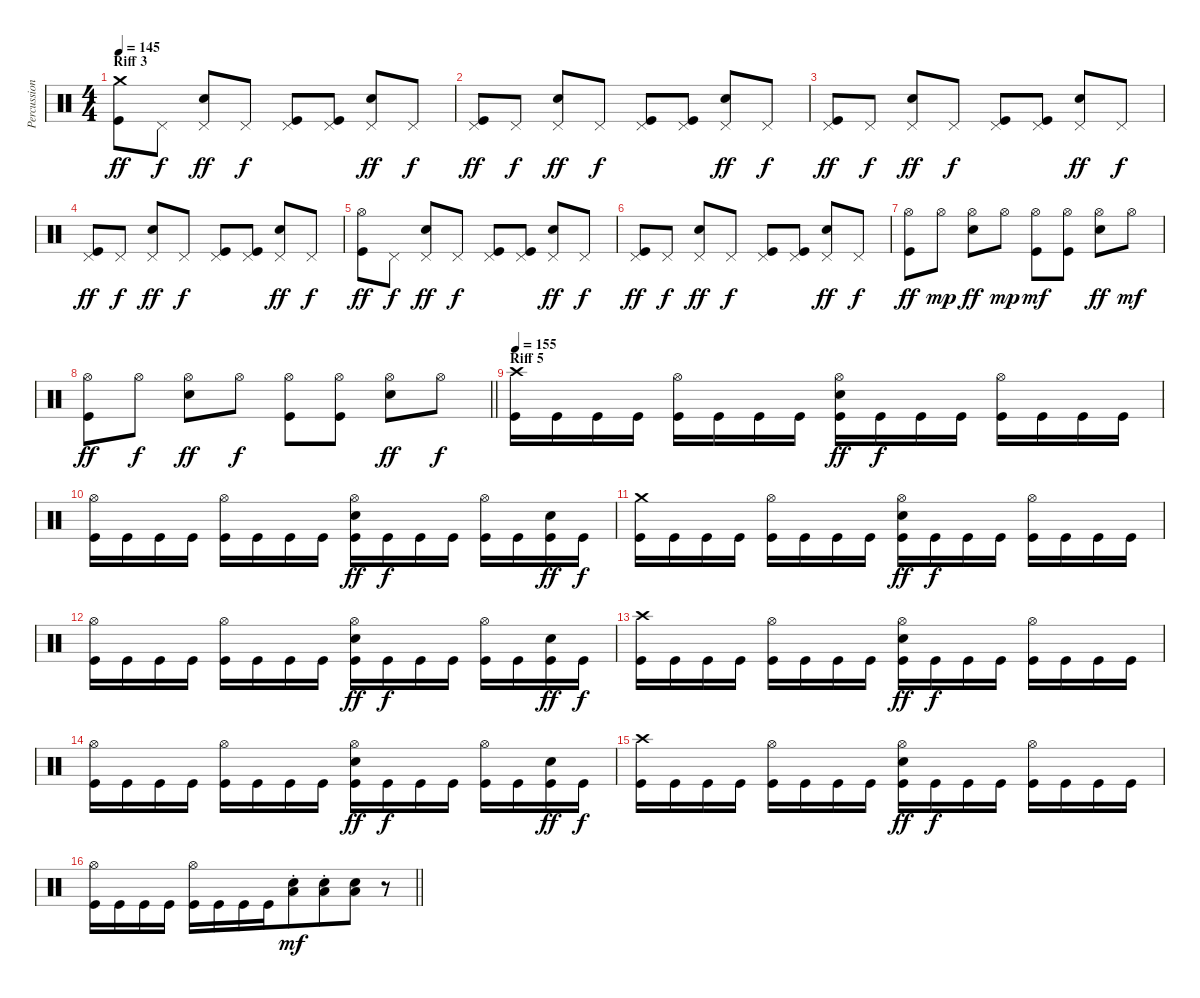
\track ("Percussions" "Percussion") {instrument percussion}
\staff {score}
\articulation defaults
\ts (4 4)
\section ("" "Riff 3")
\tempo 145
\clef neutral
\ks c
("Crash medium (hit)" "Kick (hit)").8{dy ff} "Pedal Hi-Hat (hit)".8{dy f beam split} ("Pedal Hi-Hat (hit)" "Electric Snare (hit)").8{dy ff} "Pedal Hi-Hat (hit)".8{dy f beam split} ("Pedal Hi-Hat (hit)" "Kick (hit)").8 ("Pedal Hi-Hat (hit)" "Kick (hit)").8 ("Pedal Hi-Hat (hit)" "Electric Snare (hit)").8{dy ff} "Pedal Hi-Hat (hit)".8{dy f} |
("Pedal Hi-Hat (hit)" "Kick (hit)").8{dy ff} "Pedal Hi-Hat (hit)".8{dy f beam split} ("Pedal Hi-Hat (hit)" "Electric Snare (hit)").8{dy ff} "Pedal Hi-Hat (hit)".8{dy f beam split} ("Pedal Hi-Hat (hit)" "Kick (hit)").8 ("Pedal Hi-Hat (hit)" "Kick (hit)").8 ("Pedal Hi-Hat (hit)" "Electric Snare (hit)").8{dy ff} "Pedal Hi-Hat (hit)".8{dy f} |
("Pedal Hi-Hat (hit)" "Kick (hit)").8{dy ff} "Pedal Hi-Hat (hit)".8{dy f beam split} ("Pedal Hi-Hat (hit)" "Electric Snare (hit)").8{dy ff} "Pedal Hi-Hat (hit)".8{dy f beam split} ("Pedal Hi-Hat (hit)" "Kick (hit)").8 ("Pedal Hi-Hat (hit)" "Kick (hit)").8 ("Pedal Hi-Hat (hit)" "Electric Snare (hit)").8{dy ff} "Pedal Hi-Hat (hit)".8{dy f} |
("Pedal Hi-Hat (hit)" "Kick (hit)").8{dy ff} "Pedal Hi-Hat (hit)".8{dy f beam split} ("Pedal Hi-Hat (hit)" "Electric Snare (hit)").8{dy ff} "Pedal Hi-Hat (hit)".8{dy f beam split} ("Pedal Hi-Hat (hit)" "Kick (hit)").8 ("Pedal Hi-Hat (hit)" "Kick (hit)").8 ("Pedal Hi-Hat (hit)" "Electric Snare (hit)").8{dy ff} "Pedal Hi-Hat (hit)".8{dy f} |
("Hi-Hat (open)" "Kick (hit)").8{dy ff} "Pedal Hi-Hat (hit)".8{dy f beam split} ("Pedal Hi-Hat (hit)" "Electric Snare (hit)").8{dy ff} "Pedal Hi-Hat (hit)".8{dy f beam split} ("Pedal Hi-Hat (hit)" "Kick (hit)").8 ("Pedal Hi-Hat (hit)" "Kick (hit)").8 ("Pedal Hi-Hat (hit)" "Electric Snare (hit)").8{dy ff} "Pedal Hi-Hat (hit)".8{dy f} |
("Pedal Hi-Hat (hit)" "Kick (hit)").8{dy ff} "Pedal Hi-Hat (hit)".8{dy f beam split} ("Pedal Hi-Hat (hit)" "Electric Snare (hit)").8{dy ff} "Pedal Hi-Hat (hit)".8{dy f beam split} ("Pedal Hi-Hat (hit)" "Kick (hit)").8 ("Pedal Hi-Hat (hit)" "Kick (hit)").8 ("Pedal Hi-Hat (hit)" "Electric Snare (hit)").8{dy ff} "Pedal Hi-Hat (hit)".8{dy f} |
("Hi-Hat (open)" "Kick (hit)").8{dy ff} "Hi-Hat (open)".8{dy mp beam split} ("Hi-Hat (open)" "Electric Snare (hit)").8{dy ff} "Hi-Hat (open)".8{dy mp beam split} ("Hi-Hat (open)" "Kick (hit)").8{dy mf} ("Hi-Hat (open)" "Kick (hit)").8 ("Hi-Hat (open)" "Electric Snare (hit)").8{dy ff} "Hi-Hat (open)".8{dy mf} |
\barLineRight lightlight
("Hi-Hat (open)" "Kick (hit)").8{dy ff} "Hi-Hat (open)".8{dy f beam split} ("Hi-Hat (open)" "Electric Snare (hit)").8{dy ff} "Hi-Hat (open)".8{dy f beam split} ("Hi-Hat (open)" "Kick (hit)").8 ("Hi-Hat (open)" "Kick (hit)").8 ("Hi-Hat (open)" "Electric Snare (hit)").8{dy ff} "Hi-Hat (open)".8{dy f} |
\section ("" "Riff 5")
\tempo 155
("Crash high (hit)" "Kick (hit)").16 "Kick (hit)".16 "Kick (hit)".16 "Kick (hit)".16 ("Hi-Hat (open)" "Kick (hit)").16 "Kick (hit)".16 "Kick (hit)".16 "Kick (hit)".16 ("Hi-Hat (open)" "Electric Snare (hit)" "Kick (hit)").16{dy ff} "Kick (hit)".16{dy f} "Kick (hit)".16 "Kick (hit)".16 ("Hi-Hat (open)" "Kick (hit)").16 "Kick (hit)".16 "Kick (hit)".16 "Kick (hit)".16 |
("Hi-Hat (open)" "Kick (hit)").16 "Kick (hit)".16 "Kick (hit)".16 "Kick (hit)".16 ("Hi-Hat (open)" "Kick (hit)").16 "Kick (hit)".16 "Kick (hit)".16 "Kick (hit)".16 ("Hi-Hat (open)" "Electric Snare (hit)" "Kick (hit)").16{dy ff} "Kick (hit)".16{dy f} "Kick (hit)".16 "Kick (hit)".16 ("Hi-Hat (open)" "Kick (hit)").16 "Kick (hit)".16 ("Electric Snare (hit)" "Kick (hit)").16{dy ff} "Kick (hit)".16{dy f} |
("Crash medium (hit)" "Kick (hit)").16 "Kick (hit)".16 "Kick (hit)".16 "Kick (hit)".16 ("Hi-Hat (open)" "Kick (hit)").16 "Kick (hit)".16 "Kick (hit)".16 "Kick (hit)".16 ("Hi-Hat (open)" "Electric Snare (hit)" "Kick (hit)").16{dy ff} "Kick (hit)".16{dy f} "Kick (hit)".16 "Kick (hit)".16 ("Hi-Hat (open)" "Kick (hit)").16 "Kick (hit)".16 "Kick (hit)".16 "Kick (hit)".16 |
("Hi-Hat (open)" "Kick (hit)").16 "Kick (hit)".16 "Kick (hit)".16 "Kick (hit)".16 ("Hi-Hat (open)" "Kick (hit)").16 "Kick (hit)".16 "Kick (hit)".16 "Kick (hit)".16 ("Hi-Hat (open)" "Electric Snare (hit)" "Kick (hit)").16{dy ff} "Kick (hit)".16{dy f} "Kick (hit)".16 "Kick (hit)".16 ("Hi-Hat (open)" "Kick (hit)").16 "Kick (hit)".16 ("Electric Snare (hit)" "Kick (hit)").16{dy ff} "Kick (hit)".16{dy f} |
("Crash high (hit)" "Kick (hit)").16 "Kick (hit)".16 "Kick (hit)".16 "Kick (hit)".16 ("Hi-Hat (open)" "Kick (hit)").16 "Kick (hit)".16 "Kick (hit)".16 "Kick (hit)".16 ("Hi-Hat (open)" "Electric Snare (hit)" "Kick (hit)").16{dy ff} "Kick (hit)".16{dy f} "Kick (hit)".16 "Kick (hit)".16 ("Hi-Hat (open)" "Kick (hit)").16 "Kick (hit)".16 "Kick (hit)".16 "Kick (hit)".16 |
("Hi-Hat (open)" "Kick (hit)").16 "Kick (hit)".16 "Kick (hit)".16 "Kick (hit)".16 ("Hi-Hat (open)" "Kick (hit)").16 "Kick (hit)".16 "Kick (hit)".16 "Kick (hit)".16 ("Hi-Hat (open)" "Electric Snare (hit)" "Kick (hit)").16{dy ff} "Kick (hit)".16{dy f} "Kick (hit)".16 "Kick (hit)".16 ("Hi-Hat (open)" "Kick (hit)").16 "Kick (hit)".16 ("Electric Snare (hit)" "Kick (hit)").16{dy ff} "Kick (hit)".16{dy f} |
("Crash high (hit)" "Kick (hit)").16 "Kick (hit)".16 "Kick (hit)".16 "Kick (hit)".16 ("Hi-Hat (open)" "Kick (hit)").16 "Kick (hit)".16 "Kick (hit)".16 "Kick (hit)".16 ("Hi-Hat (open)" "Electric Snare (hit)" "Kick (hit)").16{dy ff} "Kick (hit)".16{dy f} "Kick (hit)".16 "Kick (hit)".16 ("Hi-Hat (open)" "Kick (hit)").16 "Kick (hit)".16 "Kick (hit)".16 "Kick (hit)".16 |
\barLineRight lightlight
("Hi-Hat (open)" "Kick (hit)").16 "Kick (hit)".16 "Kick (hit)".16 "Kick (hit)".16 ("Hi-Hat (open)" "Kick (hit)").16 "Kick (hit)".16 "Kick (hit)".16 "Kick (hit)".16{beam merge} ("Electric Snare (hit)"{st} "Low Floor Tom (hit)").8{dy mf beam merge} ("Electric Snare (hit)"{st} "Low Floor Tom (hit)").8{beam merge} ("Electric Snare (hit)" "Low Floor Tom (hit)").8 r.8
